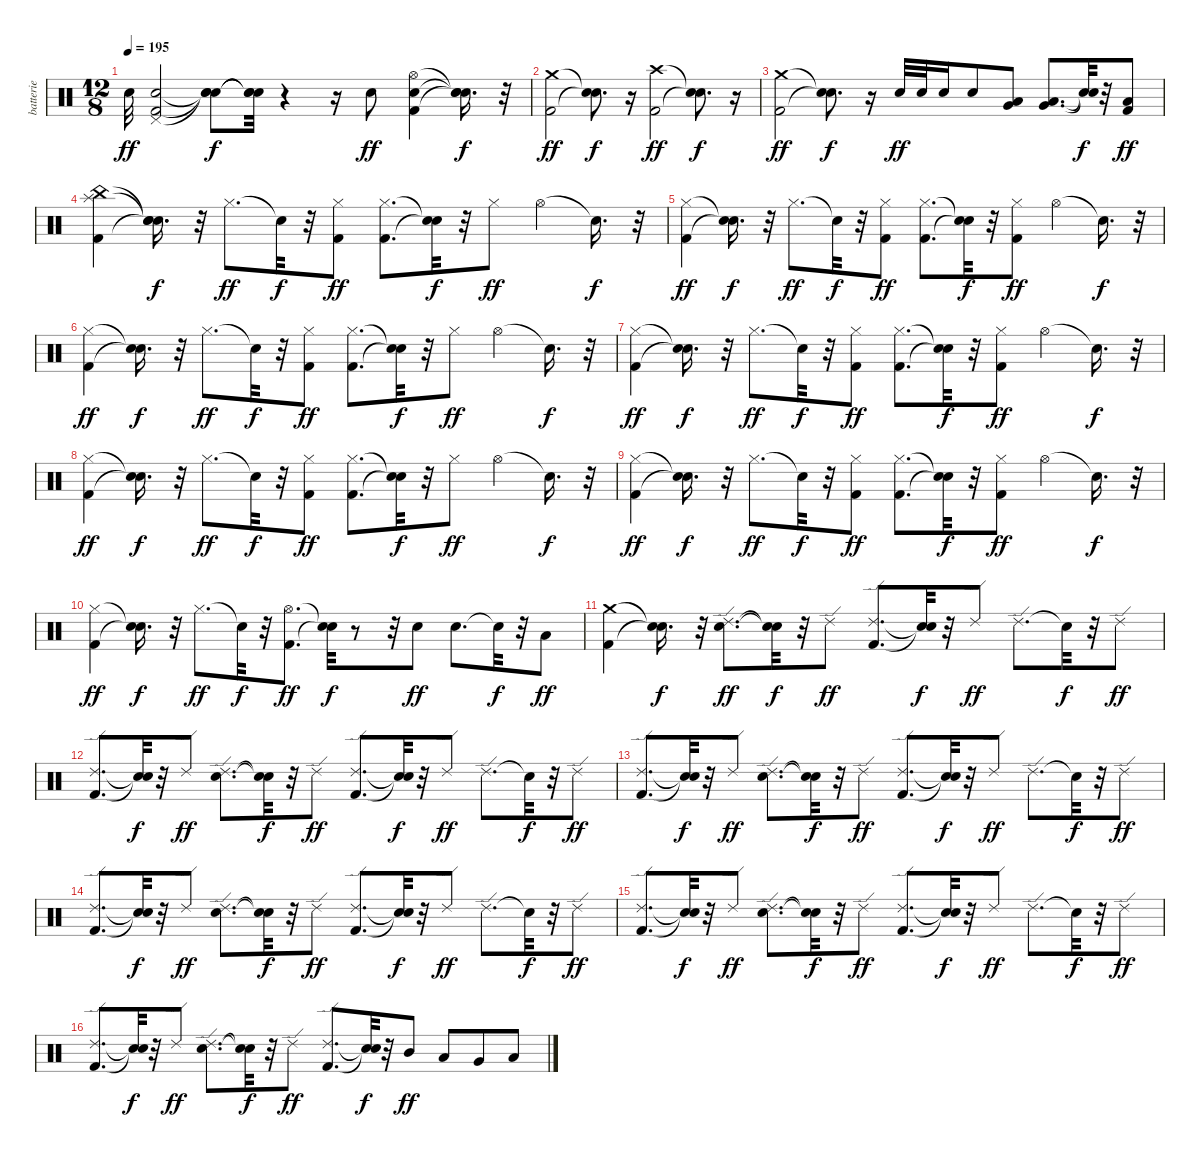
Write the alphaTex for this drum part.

\track ("batterie" "batterie") {instrument percussion}
\staff {score}
\articulation defaults
\ts (12 8)
\tempo 195
\clef neutral
\ks c "Electric Snare (hit)".32{dy ff}
("Kick (hit) 2" "Electric Snare (hit)" "Pedal Hi-Hat (hit)").2 ("Snare (hit)"{t} "Snare (hit)"{t} "Snare (hit)"{t}).8{dy f} ("Snare (hit)"{t} "Snare (hit)"{t} "Snare (hit)"{t}).32 r.4 r.16 "Electric Snare (hit)".8{dy ff} ("Kick (hit) 2" "Electric Snare (hit)" "Hi-Hat (open)").4 ("Snare (hit)"{t} "Snare (hit)"{t} "Snare (hit)"{t}).16{d dy f} r.32 |
("Kick (hit) 2" "Crash medium (hit)").2{dy ff} ("Snare (hit)"{t} "Snare (hit)"{t}).8{d dy f} r.16 ("Kick (hit) 2" "Crash high (hit)").2{dy ff} ("Snare (hit)"{t} "Snare (hit)"{t}).8{d dy f} r.16 |
("Kick (hit) 2" "Crash medium (hit)").2{dy ff} ("Snare (hit)"{t} "Snare (hit)"{t}).8{d dy f} r.16 "Electric Snare (hit)".32{dy ff} "Electric Snare (hit)".32 "Electric Snare (hit)".16 "Electric Snare (hit)".8 ("Very Low Tom (hit)" "Low Tom (hit)").8 ("Low Floor Tom (hit)" "Very Low Tom (hit)").8{d} ("Snare (hit)"{t} "Snare (hit)"{t}).32{dy f} r.32 ("Kick (hit) 2" "Low Floor Tom (hit)").8{dy ff} |
("Kick (hit) 2" "China (hit)" "Splash (hit)").4 ("Snare (hit)"{t} "Snare (hit)"{t} "Snare (hit)"{t}).16{d dy f} r.32 "Hi-Hat (closed)".8{d dy ff} "Snare (hit)"{t}.32{dy f} r.32 ("Kick (hit) 2" "Hi-Hat (closed)").8{dy ff} ("Kick (hit) 2" "Hi-Hat (closed)").8{d} ("Snare (hit)"{t} "Snare (hit)"{t}).32{dy f} r.32 "Hi-Hat (closed)".8{dy ff} "Hi-Hat (open)".4 "Snare (hit)"{t}.16{d dy f} r.32 |
("Kick (hit) 2" "Hi-Hat (closed)").4{dy ff} ("Snare (hit)"{t} "Snare (hit)"{t}).16{d dy f} r.32 "Hi-Hat (closed)".8{d dy ff} "Snare (hit)"{t}.32{dy f} r.32 ("Kick (hit) 2" "Hi-Hat (closed)").8{dy ff} ("Kick (hit) 2" "Hi-Hat (closed)").8{d} ("Snare (hit)"{t} "Snare (hit)"{t}).32{dy f} r.32 ("Kick (hit) 2" "Hi-Hat (closed)").8{dy ff} "Hi-Hat (open)".4 "Snare (hit)"{t}.16{d dy f} r.32 |
("Kick (hit) 2" "Hi-Hat (closed)").4{dy ff} ("Snare (hit)"{t} "Snare (hit)"{t}).16{d dy f} r.32 "Hi-Hat (closed)".8{d dy ff} "Snare (hit)"{t}.32{dy f} r.32 ("Kick (hit) 2" "Hi-Hat (closed)").8{dy ff} ("Kick (hit) 2" "Hi-Hat (closed)").8{d} ("Snare (hit)"{t} "Snare (hit)"{t}).32{dy f} r.32 "Hi-Hat (closed)".8{dy ff} "Hi-Hat (open)".4 "Snare (hit)"{t}.16{d dy f} r.32 |
("Kick (hit) 2" "Hi-Hat (closed)").4{dy ff} ("Snare (hit)"{t} "Snare (hit)"{t}).16{d dy f} r.32 "Hi-Hat (closed)".8{d dy ff} "Snare (hit)"{t}.32{dy f} r.32 ("Kick (hit) 2" "Hi-Hat (closed)").8{dy ff} ("Kick (hit) 2" "Hi-Hat (closed)").8{d} ("Snare (hit)"{t} "Snare (hit)"{t}).32{dy f} r.32 ("Kick (hit) 2" "Hi-Hat (closed)").8{dy ff} "Hi-Hat (open)".4 "Snare (hit)"{t}.16{d dy f} r.32 |
("Kick (hit) 2" "Hi-Hat (closed)").4{dy ff} ("Snare (hit)"{t} "Snare (hit)"{t}).16{d dy f} r.32 "Hi-Hat (closed)".8{d dy ff} "Snare (hit)"{t}.32{dy f} r.32 ("Kick (hit) 2" "Hi-Hat (closed)").8{dy ff} ("Kick (hit) 2" "Hi-Hat (closed)").8{d} ("Snare (hit)"{t} "Snare (hit)"{t}).32{dy f} r.32 "Hi-Hat (closed)".8{dy ff} "Hi-Hat (open)".4 "Snare (hit)"{t}.16{d dy f} r.32 |
("Kick (hit) 2" "Hi-Hat (closed)").4{dy ff} ("Snare (hit)"{t} "Snare (hit)"{t}).16{d dy f} r.32 "Hi-Hat (closed)".8{d dy ff} "Snare (hit)"{t}.32{dy f} r.32 ("Kick (hit) 2" "Hi-Hat (closed)").8{dy ff} ("Kick (hit) 2" "Hi-Hat (closed)").8{d} ("Snare (hit)"{t} "Snare (hit)"{t}).32{dy f} r.32 ("Kick (hit) 2" "Hi-Hat (closed)").8{dy ff} "Hi-Hat (open)".4 "Snare (hit)"{t}.16{d dy f} r.32 |
("Kick (hit) 2" "Hi-Hat (closed)").4{dy ff} ("Snare (hit)"{t} "Snare (hit)"{t}).16{d dy f} r.32 "Hi-Hat (closed)".8{d dy ff} "Snare (hit)"{t}.32{dy f} r.32 ("Kick (hit) 2" "Hi-Hat (open)").8{d dy ff} ("Snare (hit)"{t} "Snare (hit)"{t}).32{dy f} r.8 r.32 "Electric Snare (hit)".8{dy ff} "Electric Snare (hit)".8{d} "Snare (hit)"{t}.32{dy f} r.32 "Low Floor Tom (hit)".8{dy ff} |
("Kick (hit) 2" "Crash medium (hit)").4 ("Snare (hit)"{t} "Snare (hit)"{t}).16{d dy f} r.32 ("Electric Snare (hit)" "Ride (edge) 2").8{d dy ff} ("Snare (hit)"{t} "Snare (hit)"{t}).32{dy f} r.32 "Ride (edge) 2".8{dy ff} ("Kick (hit) 2" "Ride (edge) 2").8{d} ("Snare (hit)"{t} "Snare (hit)"{t}).32{dy f} r.32 "Ride (edge) 2".8{dy ff} "Ride (edge) 2".8{d} "Snare (hit)"{t}.32{dy f} r.32 "Ride (edge) 2".8{dy ff} |
("Kick (hit) 2" "Ride (edge) 2").8{d} ("Snare (hit)"{t} "Snare (hit)"{t}).32{dy f} r.32 "Ride (edge) 2".8{dy ff} ("Electric Snare (hit)" "Ride (edge) 2").8{d} ("Snare (hit)"{t} "Snare (hit)"{t}).32{dy f} r.32 "Ride (edge) 2".8{dy ff} ("Kick (hit) 2" "Ride (edge) 2").8{d} ("Snare (hit)"{t} "Snare (hit)"{t}).32{dy f} r.32 "Ride (edge) 2".8{dy ff} "Ride (edge) 2".8{d} "Snare (hit)"{t}.32{dy f} r.32 "Ride (edge) 2".8{dy ff} |
("Kick (hit) 2" "Ride (edge) 2").8{d} ("Snare (hit)"{t} "Snare (hit)"{t}).32{dy f} r.32 "Ride (edge) 2".8{dy ff} ("Electric Snare (hit)" "Ride (edge) 2").8{d} ("Snare (hit)"{t} "Snare (hit)"{t}).32{dy f} r.32 "Ride (edge) 2".8{dy ff} ("Kick (hit) 2" "Ride (edge) 2").8{d} ("Snare (hit)"{t} "Snare (hit)"{t}).32{dy f} r.32 "Ride (edge) 2".8{dy ff} "Ride (edge) 2".8{d} "Snare (hit)"{t}.32{dy f} r.32 "Ride (edge) 2".8{dy ff} |
("Kick (hit) 2" "Ride (edge) 2").8{d} ("Snare (hit)"{t} "Snare (hit)"{t}).32{dy f} r.32 "Ride (edge) 2".8{dy ff} ("Electric Snare (hit)" "Ride (edge) 2").8{d} ("Snare (hit)"{t} "Snare (hit)"{t}).32{dy f} r.32 "Ride (edge) 2".8{dy ff} ("Kick (hit) 2" "Ride (edge) 2").8{d} ("Snare (hit)"{t} "Snare (hit)"{t}).32{dy f} r.32 "Ride (edge) 2".8{dy ff} "Ride (edge) 2".8{d} "Snare (hit)"{t}.32{dy f} r.32 "Ride (edge) 2".8{dy ff} |
("Kick (hit) 2" "Ride (edge) 2").8{d} ("Snare (hit)"{t} "Snare (hit)"{t}).32{dy f} r.32 "Ride (edge) 2".8{dy ff} ("Electric Snare (hit)" "Ride (edge) 2").8{d} ("Snare (hit)"{t} "Snare (hit)"{t}).32{dy f} r.32 "Ride (edge) 2".8{dy ff} ("Kick (hit) 2" "Ride (edge) 2").8{d} ("Snare (hit)"{t} "Snare (hit)"{t}).32{dy f} r.32 "Ride (edge) 2".8{dy ff} "Ride (edge) 2".8{d} "Snare (hit)"{t}.32{dy f} r.32 "Ride (edge) 2".8{dy ff} |
("Kick (hit) 2" "Ride (edge) 2").8{d} ("Snare (hit)"{t} "Snare (hit)"{t}).32{dy f} r.32 "Ride (edge) 2".8{dy ff} ("Electric Snare (hit)" "Ride (edge) 2").8{d} ("Snare (hit)"{t} "Snare (hit)"{t}).32{dy f} r.32 "Ride (edge) 2".8{dy ff} ("Kick (hit) 2" "Ride (edge) 2").8{d} ("Snare (hit)"{t} "Snare (hit)"{t}).32{dy f} r.32 "Mid Tom (hit)".8{dy ff} "Low Tom (hit)".8 "Very Low Tom (hit)".8 "Low Floor Tom (hit)".8
